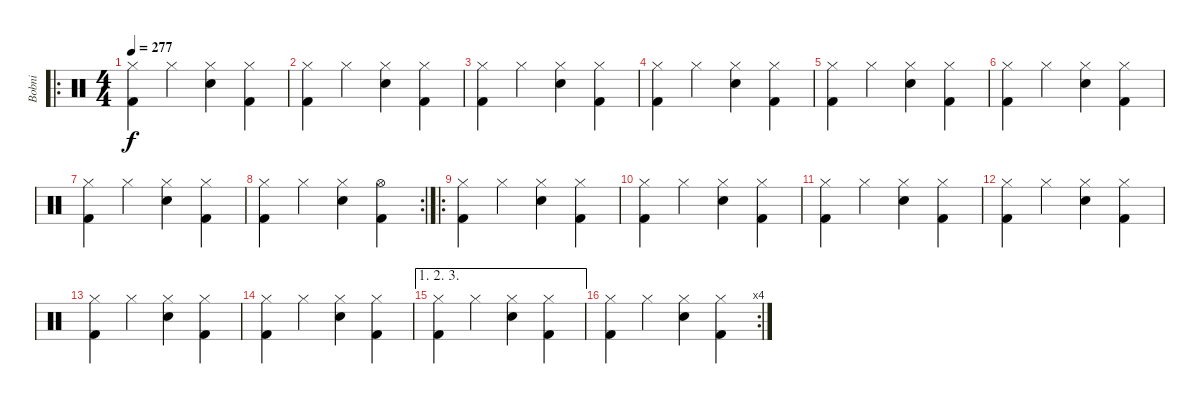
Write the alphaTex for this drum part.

\track ("Bobni" "Bobni") {instrument percussion}
\staff {score}
\articulation defaults
\ro
\ts (4 4)
\tempo 277
\clef neutral
\ks c
("Hi-Hat (closed)" "Kick (hit) 2").4{dy f} "Hi-Hat (closed)".4 ("Hi-Hat (closed)" "Snare (hit) 2").4 ("Hi-Hat (closed)" "Kick (hit) 2").4 |
("Hi-Hat (closed)" "Kick (hit) 2").4 "Hi-Hat (closed)".4 ("Hi-Hat (closed)" "Snare (hit) 2").4 ("Hi-Hat (closed)" "Kick (hit) 2").4 |
("Hi-Hat (closed)" "Kick (hit) 2").4 "Hi-Hat (closed)".4 ("Hi-Hat (closed)" "Snare (hit) 2").4 ("Hi-Hat (closed)" "Kick (hit) 2").4 |
("Hi-Hat (closed)" "Kick (hit) 2").4 "Hi-Hat (closed)".4 ("Hi-Hat (closed)" "Snare (hit) 2").4 ("Hi-Hat (closed)" "Kick (hit) 2").4 |
("Hi-Hat (closed)" "Kick (hit) 2").4 "Hi-Hat (closed)".4 ("Hi-Hat (closed)" "Snare (hit) 2").4 ("Hi-Hat (closed)" "Kick (hit) 2").4 |
("Hi-Hat (closed)" "Kick (hit) 2").4 "Hi-Hat (closed)".4 ("Hi-Hat (closed)" "Snare (hit) 2").4 ("Hi-Hat (closed)" "Kick (hit) 2").4 |
("Hi-Hat (closed)" "Kick (hit) 2").4 "Hi-Hat (closed)".4 ("Hi-Hat (closed)" "Snare (hit) 2").4 ("Hi-Hat (closed)" "Kick (hit) 2").4 |
\rc 2
("Hi-Hat (closed)" "Kick (hit) 2").4 "Hi-Hat (closed)".4 ("Hi-Hat (closed)" "Snare (hit) 2").4 ("Hi-Hat (open)" "Kick (hit) 2").4 |
\ro
("Hi-Hat (closed)" "Kick (hit) 2").4 "Hi-Hat (closed)".4 ("Hi-Hat (closed)" "Snare (hit) 2").4 ("Hi-Hat (closed)" "Kick (hit) 2").4 |
("Hi-Hat (closed)" "Kick (hit) 2").4 "Hi-Hat (closed)".4 ("Hi-Hat (closed)" "Snare (hit) 2").4 ("Hi-Hat (closed)" "Kick (hit) 2").4 |
("Hi-Hat (closed)" "Kick (hit) 2").4 "Hi-Hat (closed)".4 ("Hi-Hat (closed)" "Snare (hit) 2").4 ("Hi-Hat (closed)" "Kick (hit) 2").4 |
("Hi-Hat (closed)" "Kick (hit) 2").4 "Hi-Hat (closed)".4 ("Hi-Hat (closed)" "Snare (hit) 2").4 ("Hi-Hat (closed)" "Kick (hit) 2").4 |
("Hi-Hat (closed)" "Kick (hit) 2").4 "Hi-Hat (closed)".4 ("Hi-Hat (closed)" "Snare (hit) 2").4 ("Hi-Hat (closed)" "Kick (hit) 2").4 |
("Hi-Hat (closed)" "Kick (hit) 2").4 "Hi-Hat (closed)".4 ("Hi-Hat (closed)" "Snare (hit) 2").4 ("Hi-Hat (closed)" "Kick (hit) 2").4 |
\ae (1 2 3)
("Hi-Hat (closed)" "Kick (hit) 2").4 "Hi-Hat (closed)".4 ("Hi-Hat (closed)" "Snare (hit) 2").4 ("Hi-Hat (closed)" "Kick (hit) 2").4 |
\rc 4
("Hi-Hat (closed)" "Kick (hit) 2").4 "Hi-Hat (closed)".4 ("Hi-Hat (closed)" "Snare (hit) 2").4 ("Hi-Hat (closed)" "Kick (hit) 2").4
